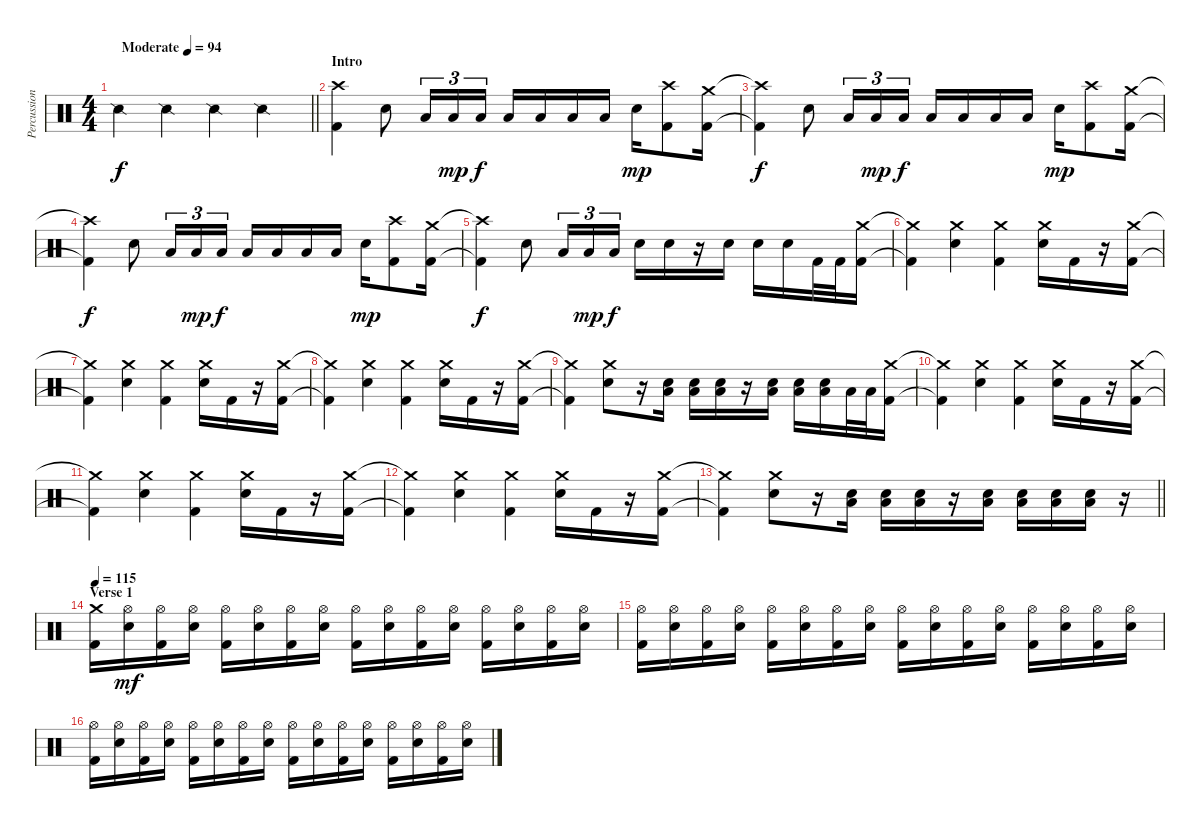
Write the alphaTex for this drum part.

\track ("Percussion" "Percussion") {instrument percussion}
\staff {score}
\articulation defaults
\ts (4 4)
\tempo (94 "Moderate")
\clef neutral
\barLineRight lightlight
\ks c "Snare (side stick) 2".4{dy f} "Snare (side stick) 2".4 "Snare (side stick) 2".4 "Snare (side stick) 2".4
|
\section ("" "Intro")
("Crash high (hit)" "Kick (hit) 2").4 "Electric Snare (hit)".8 "Low Tom (hit)".16{tu (3 2)} "Low Tom (hit)".16{tu (3 2) dy mp} "Low Tom (hit)".16{tu (3 2) dy f} "Low Tom (hit)".16 "Low Tom (hit)".16 "Low Tom (hit)".16 "Low Tom (hit)".16 "Electric Snare (hit)".16{dy mp} ("Crash high (hit)" "Kick (hit) 2").8 ("Crash medium (hit)" "Kick (hit) 2").16 |
("Crash high (hit)"{t} "Kick (hit) 2"{t}).4{dy f} "Electric Snare (hit)".8 "Low Tom (hit)".16{tu (3 2)} "Low Tom (hit)".16{tu (3 2) dy mp} "Low Tom (hit)".16{tu (3 2) dy f} "Low Tom (hit)".16 "Low Tom (hit)".16 "Low Tom (hit)".16 "Low Tom (hit)".16 "Electric Snare (hit)".16{dy mp} ("Crash high (hit)" "Kick (hit) 2").8 ("Crash medium (hit)" "Kick (hit) 2").16 |
("Crash high (hit)"{t} "Kick (hit) 2"{t}).4{dy f} "Electric Snare (hit)".8 "Low Tom (hit)".16{tu (3 2)} "Low Tom (hit)".16{tu (3 2) dy mp} "Low Tom (hit)".16{tu (3 2) dy f} "Low Tom (hit)".16 "Low Tom (hit)".16 "Low Tom (hit)".16 "Low Tom (hit)".16 "Electric Snare (hit)".16{dy mp} ("Crash high (hit)" "Kick (hit) 2").8 ("Crash medium (hit)" "Kick (hit) 2").16 |
("Crash high (hit)"{t} "Kick (hit) 2"{t}).4{dy f} "Electric Snare (hit)".8 "Low Tom (hit)".16{tu (3 2)} "Low Tom (hit)".16{tu (3 2) dy mp} "Low Tom (hit)".16{tu (3 2) dy f} "Electric Snare (hit)".16 "Electric Snare (hit)".16 r.16 "Electric Snare (hit)".16 "Electric Snare (hit)".16 "Electric Snare (hit)".16 "Kick (hit) 2".32 "Kick (hit) 2".32 ("Crash medium (hit)" "Kick (hit) 2").16 |
("Crash medium (hit)"{t} "Kick (hit) 2"{t}).4 ("Crash medium (hit)" "Electric Snare (hit)").4 ("Crash medium (hit)" "Kick (hit) 2").4 ("Crash medium (hit)" "Electric Snare (hit)").16 "Kick (hit) 2".16 r.16 ("Crash medium (hit)" "Kick (hit) 2").16 |
("Crash medium (hit)"{t} "Kick (hit) 2"{t}).4 ("Crash medium (hit)" "Electric Snare (hit)").4 ("Crash medium (hit)" "Kick (hit) 2").4 ("Crash medium (hit)" "Electric Snare (hit)").16 "Kick (hit) 2".16 r.16 ("Crash medium (hit)" "Kick (hit) 2").16 |
("Crash medium (hit)"{t} "Kick (hit) 2"{t}).4 ("Crash medium (hit)" "Electric Snare (hit)").4 ("Crash medium (hit)" "Kick (hit) 2").4 ("Crash medium (hit)" "Electric Snare (hit)").16 "Kick (hit) 2".16 r.16 ("Crash medium (hit)" "Kick (hit) 2").16 |
("Crash medium (hit)"{t} "Kick (hit) 2"{t}).4 ("Crash medium (hit)" "Electric Snare (hit)").8 r.16 ("Low Tom (hit)" "Electric Snare (hit)").16 ("Low Tom (hit)" "Electric Snare (hit)").16 ("Low Tom (hit)" "Electric Snare (hit)").16 r.16 ("Low Tom (hit)" "Electric Snare (hit)").16 ("Low Tom (hit)" "Electric Snare (hit)").16 ("Low Tom (hit)" "Electric Snare (hit)").16 "Low Tom (hit)".32 "Low Tom (hit)".32 ("Crash medium (hit)" "Kick (hit) 2").16 |
("Crash medium (hit)"{t} "Kick (hit) 2"{t}).4 ("Crash medium (hit)" "Electric Snare (hit)").4 ("Crash medium (hit)" "Kick (hit) 2").4 ("Crash medium (hit)" "Electric Snare (hit)").16 "Kick (hit) 2".16 r.16 ("Crash medium (hit)" "Kick (hit) 2").16 |
("Crash medium (hit)"{t} "Kick (hit) 2"{t}).4 ("Crash medium (hit)" "Electric Snare (hit)").4 ("Crash medium (hit)" "Kick (hit) 2").4 ("Crash medium (hit)" "Electric Snare (hit)").16 "Kick (hit) 2".16 r.16 ("Crash medium (hit)" "Kick (hit) 2").16 |
("Crash medium (hit)"{t} "Kick (hit) 2"{t}).4 ("Crash medium (hit)" "Electric Snare (hit)").4 ("Crash medium (hit)" "Kick (hit) 2").4 ("Crash medium (hit)" "Electric Snare (hit)").16 "Kick (hit) 2".16 r.16 ("Crash medium (hit)" "Kick (hit) 2").16 |
\barLineRight lightlight
("Crash medium (hit)"{t} "Kick (hit) 2"{t}).4 ("Crash medium (hit)" "Electric Snare (hit)").8 r.16 ("Low Tom (hit)" "Electric Snare (hit)").16 ("Low Tom (hit)" "Electric Snare (hit)").16 ("Low Tom (hit)" "Electric Snare (hit)").16 r.16 ("Low Tom (hit)" "Electric Snare (hit)").16 ("Low Tom (hit)" "Electric Snare (hit)").16 ("Low Tom (hit)" "Electric Snare (hit)").16 ("Low Tom (hit)" "Electric Snare (hit)").16 r.16 |
\section ("" "Verse 1")
\tempo 115
("Crash medium (hit)" "Kick (hit) 2").16 ("Hi-Hat (open)" "Snare (hit) 2").16{dy mf} ("Hi-Hat (open)" "Kick (hit) 2").16 ("Hi-Hat (open)" "Snare (hit) 2").16 ("Hi-Hat (open)" "Kick (hit) 2").16 ("Hi-Hat (open)" "Snare (hit) 2").16 ("Hi-Hat (open)" "Kick (hit) 2").16 ("Hi-Hat (open)" "Snare (hit) 2").16 ("Hi-Hat (open)" "Kick (hit) 2").16 ("Hi-Hat (open)" "Snare (hit) 2").16 ("Hi-Hat (open)" "Kick (hit) 2").16 ("Hi-Hat (open)" "Snare (hit) 2").16 ("Hi-Hat (open)" "Kick (hit) 2").16 ("Hi-Hat (open)" "Snare (hit) 2").16 ("Hi-Hat (open)" "Kick (hit) 2").16 ("Hi-Hat (open)" "Snare (hit) 2").16 |
("Hi-Hat (open)" "Kick (hit) 2").16 ("Hi-Hat (open)" "Snare (hit) 2").16 ("Hi-Hat (open)" "Kick (hit) 2").16 ("Hi-Hat (open)" "Snare (hit) 2").16 ("Hi-Hat (open)" "Kick (hit) 2").16 ("Hi-Hat (open)" "Snare (hit) 2").16 ("Hi-Hat (open)" "Kick (hit) 2").16 ("Hi-Hat (open)" "Snare (hit) 2").16 ("Hi-Hat (open)" "Kick (hit) 2").16 ("Hi-Hat (open)" "Snare (hit) 2").16 ("Hi-Hat (open)" "Kick (hit) 2").16 ("Hi-Hat (open)" "Snare (hit) 2").16 ("Hi-Hat (open)" "Kick (hit) 2").16 ("Hi-Hat (open)" "Snare (hit) 2").16 ("Hi-Hat (open)" "Kick (hit) 2").16 ("Hi-Hat (open)" "Snare (hit) 2").16 |
("Hi-Hat (open)" "Kick (hit) 2").16 ("Hi-Hat (open)" "Snare (hit) 2").16 ("Hi-Hat (open)" "Kick (hit) 2").16 ("Hi-Hat (open)" "Snare (hit) 2").16 ("Hi-Hat (open)" "Kick (hit) 2").16 ("Hi-Hat (open)" "Snare (hit) 2").16 ("Hi-Hat (open)" "Kick (hit) 2").16 ("Hi-Hat (open)" "Snare (hit) 2").16 ("Hi-Hat (open)" "Kick (hit) 2").16 ("Hi-Hat (open)" "Snare (hit) 2").16 ("Hi-Hat (open)" "Kick (hit) 2").16 ("Hi-Hat (open)" "Snare (hit) 2").16 ("Hi-Hat (open)" "Kick (hit) 2").16 ("Hi-Hat (open)" "Snare (hit) 2").16 ("Hi-Hat (open)" "Kick (hit) 2").16 ("Hi-Hat (open)" "Snare (hit) 2").16
